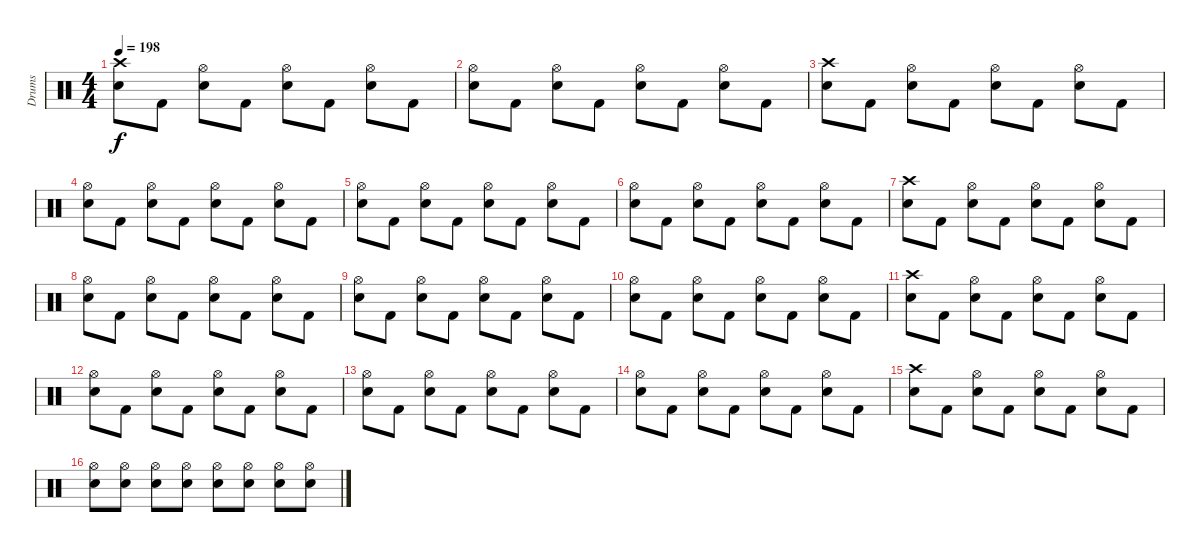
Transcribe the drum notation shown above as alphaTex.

\track ("Drums" "Drums") {instrument percussion}
\staff {score}
\articulation defaults
\ts (4 4)
\tempo 198
\clef neutral
\ks c
("Crash high (hit)" "Snare (hit) 2").8{dy f} "Kick (hit) 2".8 ("Hi-Hat (open)" "Snare (hit) 2").8 "Kick (hit) 2".8 ("Hi-Hat (open)" "Snare (hit) 2").8 "Kick (hit) 2".8 ("Hi-Hat (open)" "Snare (hit) 2").8 "Kick (hit) 2".8 |
("Hi-Hat (open)" "Snare (hit) 2").8 "Kick (hit) 2".8 ("Hi-Hat (open)" "Snare (hit) 2").8 "Kick (hit) 2".8 ("Hi-Hat (open)" "Snare (hit) 2").8 "Kick (hit) 2".8 ("Hi-Hat (open)" "Snare (hit) 2").8 "Kick (hit) 2".8 |
("Crash high (hit)" "Snare (hit) 2").8 "Kick (hit) 2".8 ("Hi-Hat (open)" "Snare (hit) 2").8 "Kick (hit) 2".8 ("Hi-Hat (open)" "Snare (hit) 2").8 "Kick (hit) 2".8 ("Hi-Hat (open)" "Snare (hit) 2").8 "Kick (hit) 2".8 |
("Hi-Hat (open)" "Snare (hit) 2").8 "Kick (hit) 2".8 ("Hi-Hat (open)" "Snare (hit) 2").8 "Kick (hit) 2".8 ("Hi-Hat (open)" "Snare (hit) 2").8 "Kick (hit) 2".8 ("Hi-Hat (open)" "Snare (hit) 2").8 "Kick (hit) 2".8 |
("Hi-Hat (open)" "Snare (hit) 2").8 "Kick (hit) 2".8 ("Hi-Hat (open)" "Snare (hit) 2").8 "Kick (hit) 2".8 ("Hi-Hat (open)" "Snare (hit) 2").8 "Kick (hit) 2".8 ("Hi-Hat (open)" "Snare (hit) 2").8 "Kick (hit) 2".8 |
("Hi-Hat (open)" "Snare (hit) 2").8 "Kick (hit) 2".8 ("Hi-Hat (open)" "Snare (hit) 2").8 "Kick (hit) 2".8 ("Hi-Hat (open)" "Snare (hit) 2").8 "Kick (hit) 2".8 ("Hi-Hat (open)" "Snare (hit) 2").8 "Kick (hit) 2".8 |
("Crash high (hit)" "Snare (hit) 2").8 "Kick (hit) 2".8 ("Hi-Hat (open)" "Snare (hit) 2").8 "Kick (hit) 2".8 ("Hi-Hat (open)" "Snare (hit) 2").8 "Kick (hit) 2".8 ("Hi-Hat (open)" "Snare (hit) 2").8 "Kick (hit) 2".8 |
("Hi-Hat (open)" "Snare (hit) 2").8 "Kick (hit) 2".8 ("Hi-Hat (open)" "Snare (hit) 2").8 "Kick (hit) 2".8 ("Hi-Hat (open)" "Snare (hit) 2").8 "Kick (hit) 2".8 ("Hi-Hat (open)" "Snare (hit) 2").8 "Kick (hit) 2".8 |
("Hi-Hat (open)" "Snare (hit) 2").8 "Kick (hit) 2".8 ("Hi-Hat (open)" "Snare (hit) 2").8 "Kick (hit) 2".8 ("Hi-Hat (open)" "Snare (hit) 2").8 "Kick (hit) 2".8 ("Hi-Hat (open)" "Snare (hit) 2").8 "Kick (hit) 2".8 |
("Hi-Hat (open)" "Snare (hit) 2").8 "Kick (hit) 2".8 ("Hi-Hat (open)" "Snare (hit) 2").8 "Kick (hit) 2".8 ("Hi-Hat (open)" "Snare (hit) 2").8 "Kick (hit) 2".8 ("Hi-Hat (open)" "Snare (hit) 2").8 "Kick (hit) 2".8 |
("Crash high (hit)" "Snare (hit) 2").8 "Kick (hit) 2".8 ("Hi-Hat (open)" "Snare (hit) 2").8 "Kick (hit) 2".8 ("Hi-Hat (open)" "Snare (hit) 2").8 "Kick (hit) 2".8 ("Hi-Hat (open)" "Snare (hit) 2").8 "Kick (hit) 2".8 |
("Hi-Hat (open)" "Snare (hit) 2").8 "Kick (hit) 2".8 ("Hi-Hat (open)" "Snare (hit) 2").8 "Kick (hit) 2".8 ("Hi-Hat (open)" "Snare (hit) 2").8 "Kick (hit) 2".8 ("Hi-Hat (open)" "Snare (hit) 2").8 "Kick (hit) 2".8 |
("Hi-Hat (open)" "Snare (hit) 2").8 "Kick (hit) 2".8 ("Hi-Hat (open)" "Snare (hit) 2").8 "Kick (hit) 2".8 ("Hi-Hat (open)" "Snare (hit) 2").8 "Kick (hit) 2".8 ("Hi-Hat (open)" "Snare (hit) 2").8 "Kick (hit) 2".8 |
("Hi-Hat (open)" "Snare (hit) 2").8 "Kick (hit) 2".8 ("Hi-Hat (open)" "Snare (hit) 2").8 "Kick (hit) 2".8 ("Hi-Hat (open)" "Snare (hit) 2").8 "Kick (hit) 2".8 ("Hi-Hat (open)" "Snare (hit) 2").8 "Kick (hit) 2".8 |
("Crash high (hit)" "Snare (hit) 2").8 "Kick (hit) 2".8 ("Hi-Hat (open)" "Snare (hit) 2").8 "Kick (hit) 2".8 ("Hi-Hat (open)" "Snare (hit) 2").8 "Kick (hit) 2".8 ("Hi-Hat (open)" "Snare (hit) 2").8 "Kick (hit) 2".8 |
("Hi-Hat (open)" "Snare (hit) 2").8 ("Hi-Hat (open)" "Snare (hit) 2").8 ("Hi-Hat (open)" "Snare (hit) 2").8 ("Hi-Hat (open)" "Snare (hit) 2").8 ("Hi-Hat (open)" "Snare (hit) 2").8 ("Hi-Hat (open)" "Snare (hit) 2").8 ("Hi-Hat (open)" "Snare (hit) 2").8 ("Hi-Hat (open)" "Snare (hit) 2").8
